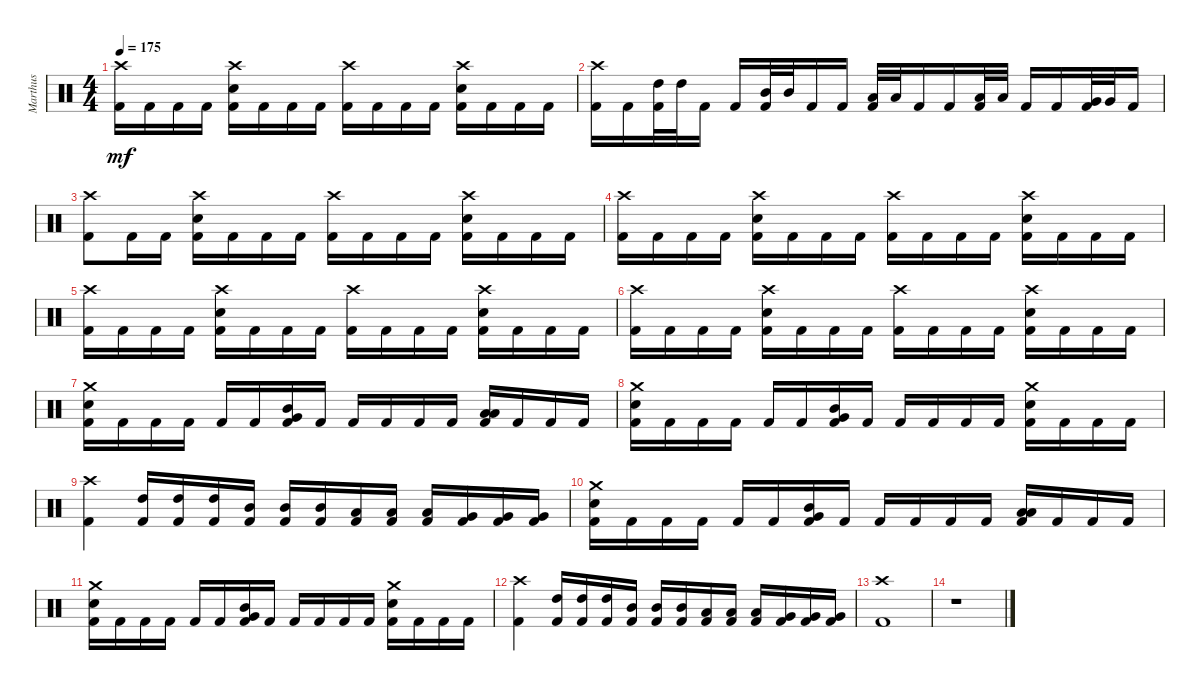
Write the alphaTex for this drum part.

\track ("Marthus" "Marthus") {instrument percussion}
\staff {score}
\articulation defaults
\ts (4 4)
\tempo 175
\clef neutral
\ks c
("Crash high (hit)" "Kick (hit) 2").16{dy mf} "Kick (hit) 2".16 "Kick (hit) 2".16 "Kick (hit) 2".16 ("Crash high (hit)" "Electric Snare (hit)" "Kick (hit) 2").16 "Kick (hit) 2".16 "Kick (hit) 2".16 "Kick (hit) 2".16 ("Crash high (hit)" "Kick (hit) 2").16 "Kick (hit) 2".16 "Kick (hit) 2".16 "Kick (hit) 2".16 ("Crash high (hit)" "Electric Snare (hit)" "Kick (hit) 2").16 "Kick (hit) 2".16 "Kick (hit) 2".16 "Kick (hit) 2".16 |
("Crash high (hit)" "Kick (hit) 2").16 "Kick (hit) 2".16 ("High Tom (hit)" "Kick (hit) 2").32 "High Tom (hit)".32 "Kick (hit) 2".16 "Kick (hit) 2".16 ("Mid Tom (hit)" "Kick (hit) 2").32 "Mid Tom (hit)".32 "Kick (hit) 2".16 "Kick (hit) 2".16 ("Low Tom (hit)" "Kick (hit) 2").32 "Low Tom (hit)".32 "Kick (hit) 2".16 "Kick (hit) 2".16 ("Low Tom (hit)" "Kick (hit) 2").32 "Low Tom (hit)".32 "Kick (hit) 2".16 "Kick (hit) 2".16 ("Very Low Tom (hit)" "Kick (hit) 2").32 "Very Low Tom (hit)".32 "Kick (hit) 2".16 |
("Crash high (hit)" "Kick (hit) 2").8 "Kick (hit) 2".16 "Kick (hit) 2".16 ("Crash high (hit)" "Electric Snare (hit)" "Kick (hit) 2").16 "Kick (hit) 2".16 "Kick (hit) 2".16 "Kick (hit) 2".16 ("Crash high (hit)" "Kick (hit) 2").16 "Kick (hit) 2".16 "Kick (hit) 2".16 "Kick (hit) 2".16 ("Crash high (hit)" "Electric Snare (hit)" "Kick (hit) 2").16 "Kick (hit) 2".16 "Kick (hit) 2".16 "Kick (hit) 2".16 |
("Crash high (hit)" "Kick (hit) 2").16 "Kick (hit) 2".16 "Kick (hit) 2".16 "Kick (hit) 2".16 ("Crash high (hit)" "Electric Snare (hit)" "Kick (hit) 2").16 "Kick (hit) 2".16 "Kick (hit) 2".16 "Kick (hit) 2".16 ("Crash high (hit)" "Kick (hit) 2").16 "Kick (hit) 2".16 "Kick (hit) 2".16 "Kick (hit) 2".16 ("Crash high (hit)" "Electric Snare (hit)" "Kick (hit) 2").16 "Kick (hit) 2".16 "Kick (hit) 2".16 "Kick (hit) 2".16 |
("Crash high (hit)" "Kick (hit) 2").16 "Kick (hit) 2".16 "Kick (hit) 2".16 "Kick (hit) 2".16 ("Crash high (hit)" "Electric Snare (hit)" "Kick (hit) 2").16 "Kick (hit) 2".16 "Kick (hit) 2".16 "Kick (hit) 2".16 ("Crash high (hit)" "Kick (hit) 2").16 "Kick (hit) 2".16 "Kick (hit) 2".16 "Kick (hit) 2".16 ("Crash high (hit)" "Electric Snare (hit)" "Kick (hit) 2").16 "Kick (hit) 2".16 "Kick (hit) 2".16 "Kick (hit) 2".16 |
("Crash high (hit)" "Kick (hit) 2").16 "Kick (hit) 2".16 "Kick (hit) 2".16 "Kick (hit) 2".16 ("Crash high (hit)" "Electric Snare (hit)" "Kick (hit) 2").16 "Kick (hit) 2".16 "Kick (hit) 2".16 "Kick (hit) 2".16 ("Crash high (hit)" "Kick (hit) 2").16 "Kick (hit) 2".16 "Kick (hit) 2".16 "Kick (hit) 2".16 ("Crash high (hit)" "Electric Snare (hit)" "Kick (hit) 2").16 "Kick (hit) 2".16 "Kick (hit) 2".16 "Kick (hit) 2".16 |
("Crash medium (hit)" "Electric Snare (hit)" "Kick (hit) 2").16 "Kick (hit) 2".16 "Kick (hit) 2".16 "Kick (hit) 2".16 "Kick (hit) 2".16 "Kick (hit) 2".16 ("Mid Tom (hit)" "Very Low Tom (hit)" "Kick (hit) 2").16 "Kick (hit) 2".16 "Kick (hit) 2".16 "Kick (hit) 2".16 "Kick (hit) 2".16 "Kick (hit) 2".16 ("Low Tom (hit)" "Low Floor Tom (hit)" "Kick (hit) 2").16 "Kick (hit) 2".16 "Kick (hit) 2".16 "Kick (hit) 2".16 |
("Crash medium (hit)" "Electric Snare (hit)" "Kick (hit) 2").16 "Kick (hit) 2".16 "Kick (hit) 2".16 "Kick (hit) 2".16 "Kick (hit) 2".16 "Kick (hit) 2".16 ("Mid Tom (hit)" "Very Low Tom (hit)" "Kick (hit) 2").16 "Kick (hit) 2".16 "Kick (hit) 2".16 "Kick (hit) 2".16 "Kick (hit) 2".16 "Kick (hit) 2".16 ("Crash medium (hit)" "Electric Snare (hit)" "Kick (hit) 2").16 "Kick (hit) 2".16 "Kick (hit) 2".16 "Kick (hit) 2".16 |
("Crash high (hit)" "Kick (hit) 2").4 ("High Tom (hit)" "Kick (hit) 2").16 ("High Tom (hit)" "Kick (hit) 2").16 ("High Tom (hit)" "Kick (hit) 2").16 ("Mid Tom (hit)" "Kick (hit) 2").16 ("Mid Tom (hit)" "Kick (hit) 2").16 ("Mid Tom (hit)" "Kick (hit) 2").16 ("Low Tom (hit)" "Kick (hit) 2").16 ("Low Tom (hit)" "Kick (hit) 2").16 ("Low Tom (hit)" "Kick (hit) 2").16 ("Very Low Tom (hit)" "Kick (hit) 2").16 ("Very Low Tom (hit)" "Kick (hit) 2").16 ("Very Low Tom (hit)" "Kick (hit) 2").16 |
("Crash medium (hit)" "Electric Snare (hit)" "Kick (hit) 2").16 "Kick (hit) 2".16 "Kick (hit) 2".16 "Kick (hit) 2".16 "Kick (hit) 2".16 "Kick (hit) 2".16 ("Mid Tom (hit)" "Very Low Tom (hit)" "Kick (hit) 2").16 "Kick (hit) 2".16 "Kick (hit) 2".16 "Kick (hit) 2".16 "Kick (hit) 2".16 "Kick (hit) 2".16 ("Low Tom (hit)" "Low Floor Tom (hit)" "Kick (hit) 2").16 "Kick (hit) 2".16 "Kick (hit) 2".16 "Kick (hit) 2".16 |
("Crash medium (hit)" "Electric Snare (hit)" "Kick (hit) 2").16 "Kick (hit) 2".16 "Kick (hit) 2".16 "Kick (hit) 2".16 "Kick (hit) 2".16 "Kick (hit) 2".16 ("Mid Tom (hit)" "Very Low Tom (hit)" "Kick (hit) 2").16 "Kick (hit) 2".16 "Kick (hit) 2".16 "Kick (hit) 2".16 "Kick (hit) 2".16 "Kick (hit) 2".16 ("Crash medium (hit)" "Electric Snare (hit)" "Kick (hit) 2").16 "Kick (hit) 2".16 "Kick (hit) 2".16 "Kick (hit) 2".16 |
("Crash high (hit)" "Kick (hit) 2").4 ("High Tom (hit)" "Kick (hit) 2").16 ("High Tom (hit)" "Kick (hit) 2").16 ("High Tom (hit)" "Kick (hit) 2").16 ("Mid Tom (hit)" "Kick (hit) 2").16 ("Mid Tom (hit)" "Kick (hit) 2").16 ("Mid Tom (hit)" "Kick (hit) 2").16 ("Low Tom (hit)" "Kick (hit) 2").16 ("Low Tom (hit)" "Kick (hit) 2").16 ("Low Tom (hit)" "Kick (hit) 2").16 ("Very Low Tom (hit)" "Kick (hit) 2").16 ("Very Low Tom (hit)" "Kick (hit) 2").16 ("Very Low Tom (hit)" "Kick (hit) 2").16 |
("Crash high (hit)" "Kick (hit) 2").1 |
r.1
